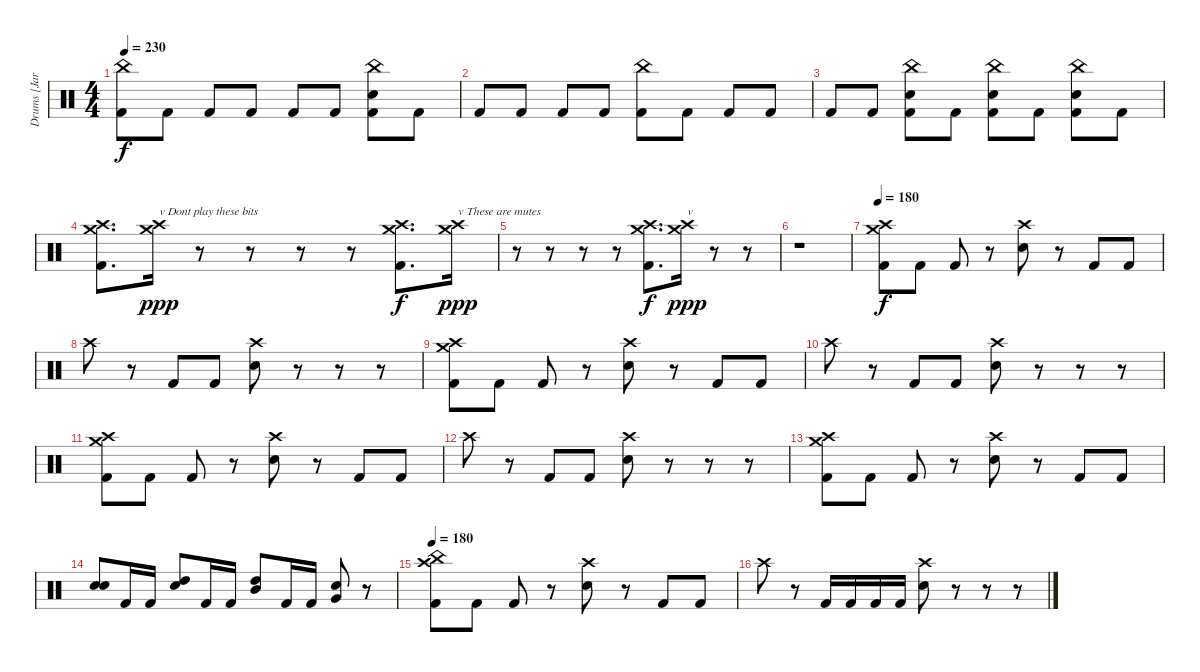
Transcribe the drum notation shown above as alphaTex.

\track ("Drums [Jared]" "Drums [Jar") {instrument percussion}
\staff {score}
\articulation defaults
\ts (4 4)
\tempo 230
\clef neutral
\ks c
("China (hit)" "Kick (hit) 2").8{dy f} "Kick (hit) 2".8 "Kick (hit) 2".8 "Kick (hit) 2".8 "Kick (hit) 2".8 "Kick (hit) 2".8 ("China (hit)" "Electric Snare (hit)" "Kick (hit) 2").8 "Kick (hit) 2".8 |
"Kick (hit) 2".8 "Kick (hit) 2".8 "Kick (hit) 2".8 "Kick (hit) 2".8 ("China (hit)" "Kick (hit) 2").8 "Kick (hit) 2".8 "Kick (hit) 2".8 "Kick (hit) 2".8 |
"Kick (hit) 2".8 "Kick (hit) 2".8 ("China (hit)" "Electric Snare (hit)" "Kick (hit) 2").8 "Kick (hit) 2".8 ("China (hit)" "Electric Snare (hit)" "Kick (hit) 2").8 "Kick (hit) 2".8 ("China (hit)" "Electric Snare (hit)" "Kick (hit) 2").8 "Kick (hit) 2".8 |
("Crash medium (hit)" "Crash high (hit)" "Kick (hit) 2").8{d} ("Crash medium (hit)" "Crash high (hit)").16{txt "v Dont play these bits" dy ppp} r.8 r.8 r.8 r.8 ("Crash medium (hit)" "Crash high (hit)" "Kick (hit) 2").8{d dy f} ("Crash medium (hit)" "Crash high (hit)").16{txt "v These are mutes" dy ppp} |
r.8 r.8 r.8 r.8 ("Crash medium (hit)" "Crash high (hit)" "Kick (hit) 2").8{d dy f} ("Crash medium (hit)" "Crash high (hit)").16{txt "v" dy ppp} r.8 r.8 |
r.1 |
\tempo 180
("Crash medium (hit)" "Crash high (hit)" "Kick (hit) 2").8{dy f} "Kick (hit) 2".8 "Kick (hit) 2".8 r.8 ("Crash high (hit)" "Electric Snare (hit)").8 r.8 "Kick (hit) 2".8 "Kick (hit) 2".8 |
"Crash high (hit)".8 r.8 "Kick (hit) 2".8 "Kick (hit) 2".8 ("Crash high (hit)" "Electric Snare (hit)").8 r.8 r.8 r.8 |
("Crash medium (hit)" "Crash high (hit)" "Kick (hit) 2").8 "Kick (hit) 2".8 "Kick (hit) 2".8 r.8 ("Crash high (hit)" "Electric Snare (hit)").8 r.8 "Kick (hit) 2".8 "Kick (hit) 2".8 |
"Crash high (hit)".8 r.8 "Kick (hit) 2".8 "Kick (hit) 2".8 ("Crash high (hit)" "Electric Snare (hit)").8 r.8 r.8 r.8 |
("Crash medium (hit)" "Crash high (hit)" "Kick (hit) 2").8 "Kick (hit) 2".8 "Kick (hit) 2".8 r.8 ("Crash high (hit)" "Electric Snare (hit)").8 r.8 "Kick (hit) 2".8 "Kick (hit) 2".8 |
"Crash high (hit)".8 r.8 "Kick (hit) 2".8 "Kick (hit) 2".8 ("Crash high (hit)" "Electric Snare (hit)").8 r.8 r.8 r.8 |
("Crash medium (hit)" "Crash high (hit)" "Kick (hit) 2").8 "Kick (hit) 2".8 "Kick (hit) 2".8 r.8 ("Crash high (hit)" "Electric Snare (hit)").8 r.8 "Kick (hit) 2".8 "Kick (hit) 2".8 |
("Electric Snare (hit)" "Electric Snare (hit)").8 "Kick (hit) 2".16 "Kick (hit) 2".16 ("High Tom (hit)" "Electric Snare (hit)").8 "Kick (hit) 2".16 "Kick (hit) 2".16 ("Mid Tom (hit)" "High Tom (hit)").8 "Kick (hit) 2".16 "Kick (hit) 2".16 ("Very Low Tom (hit)" "Electric Snare (hit)").8 r.8 |
\tempo 180
("China (hit)" "Crash high (hit)" "Kick (hit) 2").8 "Kick (hit) 2".8 "Kick (hit) 2".8 r.8 ("Crash high (hit)" "Electric Snare (hit)").8 r.8 "Kick (hit) 2".8 "Kick (hit) 2".8 |
"Crash high (hit)".8 r.8 "Kick (hit) 2".16 "Kick (hit) 2".16 "Kick (hit) 2".16 "Kick (hit) 2".16 ("Crash high (hit)" "Electric Snare (hit)").8 r.8 r.8 r.8
